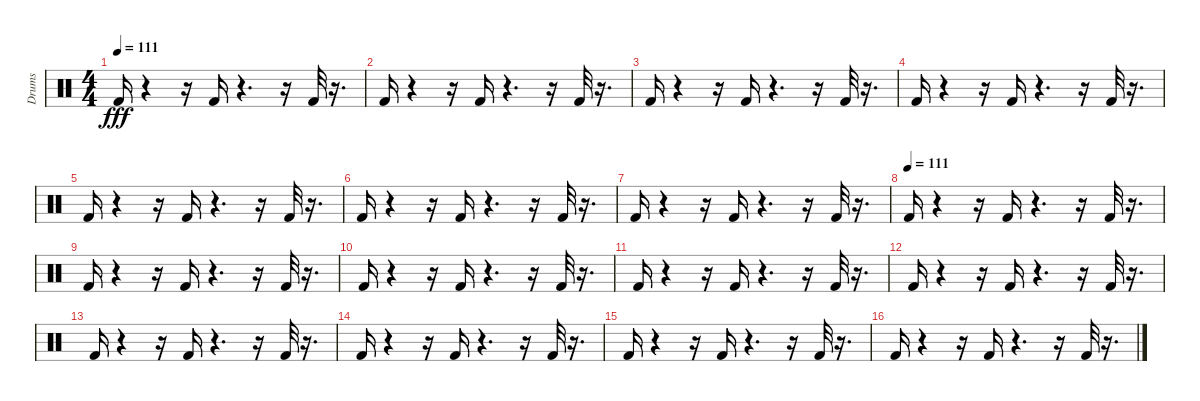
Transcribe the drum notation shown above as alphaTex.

\track ("Drums" "Drums") {instrument percussion}
\staff {score}
\articulation defaults
\ts (4 4)
\tempo 111
\clef neutral
\ks c "Kick (hit) 2".16{dy fff}
r.4 r.16 "Kick (hit) 2".16 r.4{d} r.16 "Kick (hit) 2".32 r.16{d} |
"Kick (hit) 2".16 r.4 r.16 "Kick (hit) 2".16 r.4{d} r.16 "Kick (hit) 2".32 r.16{d} |
"Kick (hit) 2".16 r.4 r.16 "Kick (hit) 2".16 r.4{d} r.16 "Kick (hit) 2".32 r.16{d} |
"Kick (hit) 2".16 r.4 r.16 "Kick (hit) 2".16 r.4{d} r.16 "Kick (hit) 2".32 r.16{d} |
"Kick (hit) 2".16 r.4 r.16 "Kick (hit) 2".16 r.4{d} r.16 "Kick (hit) 2".32 r.16{d} |
"Kick (hit) 2".16 r.4 r.16 "Kick (hit) 2".16 r.4{d} r.16 "Kick (hit) 2".32 r.16{d} |
"Kick (hit) 2".16 r.4 r.16 "Kick (hit) 2".16 r.4{d} r.16 "Kick (hit) 2".32 r.16{d} |
\tempo (111)
"Kick (hit) 2".16 r.4 r.16 "Kick (hit) 2".16 r.4{d} r.16 "Kick (hit) 2".32 r.16{d} |
"Kick (hit) 2".16 r.4 r.16 "Kick (hit) 2".16 r.4{d} r.16 "Kick (hit) 2".32 r.16{d} |
"Kick (hit) 2".16 r.4 r.16 "Kick (hit) 2".16 r.4{d} r.16 "Kick (hit) 2".32 r.16{d} |
"Kick (hit) 2".16 r.4 r.16 "Kick (hit) 2".16 r.4{d} r.16 "Kick (hit) 2".32 r.16{d} |
"Kick (hit) 2".16 r.4 r.16 "Kick (hit) 2".16 r.4{d} r.16 "Kick (hit) 2".32 r.16{d} |
"Kick (hit) 2".16 r.4 r.16 "Kick (hit) 2".16 r.4{d} r.16 "Kick (hit) 2".32 r.16{d} |
"Kick (hit) 2".16 r.4 r.16 "Kick (hit) 2".16 r.4{d} r.16 "Kick (hit) 2".32 r.16{d} |
"Kick (hit) 2".16 r.4 r.16 "Kick (hit) 2".16 r.4{d} r.16 "Kick (hit) 2".32 r.16{d} |
"Kick (hit) 2".16 r.4 r.16 "Kick (hit) 2".16 r.4{d} r.16 "Kick (hit) 2".32 r.16{d}
